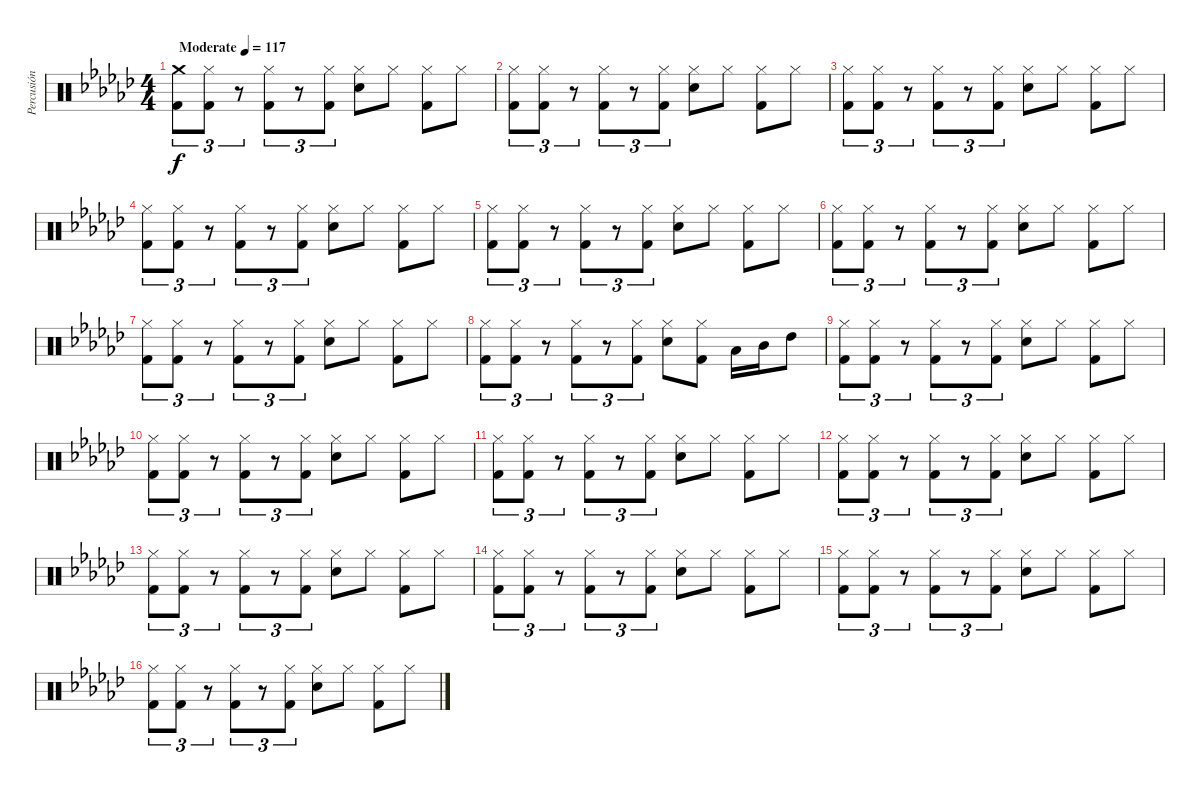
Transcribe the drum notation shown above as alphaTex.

\track ("Percusión" "Percusión") {instrument percussion}
\staff {score}
\articulation defaults
\ts (4 4)
\tempo (117 "Moderate")
\clef neutral
\ks ebminor
("Kick (hit) 2" "Crash medium (hit)").8{tu (3 2) dy f} ("Kick (hit) 2" "Hi-Hat (closed)").8{tu (3 2)} r.8{tu (3 2)} ("Kick (hit) 2" "Hi-Hat (closed)").8{tu (3 2)} r.8{tu (3 2)} ("Kick (hit) 2" "Hi-Hat (closed)").8{tu (3 2)} ("Electric Snare (hit)" "Hi-Hat (closed)").8 "Hi-Hat (closed)".8 ("Kick (hit) 2" "Hi-Hat (closed)").8 "Hi-Hat (closed)".8 |
("Kick (hit) 2" "Hi-Hat (closed)").8{tu (3 2)} ("Kick (hit) 2" "Hi-Hat (closed)").8{tu (3 2)} r.8{tu (3 2)} ("Kick (hit) 2" "Hi-Hat (closed)").8{tu (3 2)} r.8{tu (3 2)} ("Kick (hit) 2" "Hi-Hat (closed)").8{tu (3 2)} ("Electric Snare (hit)" "Hi-Hat (closed)").8 "Hi-Hat (closed)".8 ("Kick (hit) 2" "Hi-Hat (closed)").8 "Hi-Hat (closed)".8 |
("Kick (hit) 2" "Hi-Hat (closed)").8{tu (3 2)} ("Kick (hit) 2" "Hi-Hat (closed)").8{tu (3 2)} r.8{tu (3 2)} ("Kick (hit) 2" "Hi-Hat (closed)").8{tu (3 2)} r.8{tu (3 2)} ("Kick (hit) 2" "Hi-Hat (closed)").8{tu (3 2)} ("Electric Snare (hit)" "Hi-Hat (closed)").8 "Hi-Hat (closed)".8 ("Kick (hit) 2" "Hi-Hat (closed)").8 "Hi-Hat (closed)".8 |
("Kick (hit) 2" "Hi-Hat (closed)").8{tu (3 2)} ("Kick (hit) 2" "Hi-Hat (closed)").8{tu (3 2)} r.8{tu (3 2)} ("Kick (hit) 2" "Hi-Hat (closed)").8{tu (3 2)} r.8{tu (3 2)} ("Kick (hit) 2" "Hi-Hat (closed)").8{tu (3 2)} ("Electric Snare (hit)" "Hi-Hat (closed)").8 "Hi-Hat (closed)".8 ("Kick (hit) 2" "Hi-Hat (closed)").8 "Hi-Hat (closed)".8 |
("Kick (hit) 2" "Hi-Hat (closed)").8{tu (3 2)} ("Kick (hit) 2" "Hi-Hat (closed)").8{tu (3 2)} r.8{tu (3 2)} ("Kick (hit) 2" "Hi-Hat (closed)").8{tu (3 2)} r.8{tu (3 2)} ("Kick (hit) 2" "Hi-Hat (closed)").8{tu (3 2)} ("Electric Snare (hit)" "Hi-Hat (closed)").8 "Hi-Hat (closed)".8 ("Kick (hit) 2" "Hi-Hat (closed)").8 "Hi-Hat (closed)".8 |
("Kick (hit) 2" "Hi-Hat (closed)").8{tu (3 2)} ("Kick (hit) 2" "Hi-Hat (closed)").8{tu (3 2)} r.8{tu (3 2)} ("Kick (hit) 2" "Hi-Hat (closed)").8{tu (3 2)} r.8{tu (3 2)} ("Kick (hit) 2" "Hi-Hat (closed)").8{tu (3 2)} ("Electric Snare (hit)" "Hi-Hat (closed)").8 "Hi-Hat (closed)".8 ("Kick (hit) 2" "Hi-Hat (closed)").8 "Hi-Hat (closed)".8 |
("Kick (hit) 2" "Hi-Hat (closed)").8{tu (3 2)} ("Kick (hit) 2" "Hi-Hat (closed)").8{tu (3 2)} r.8{tu (3 2)} ("Kick (hit) 2" "Hi-Hat (closed)").8{tu (3 2)} r.8{tu (3 2)} ("Kick (hit) 2" "Hi-Hat (closed)").8{tu (3 2)} ("Electric Snare (hit)" "Hi-Hat (closed)").8 "Hi-Hat (closed)".8 ("Kick (hit) 2" "Hi-Hat (closed)").8 "Hi-Hat (closed)".8 |
("Kick (hit) 2" "Hi-Hat (closed)").8{tu (3 2)} ("Kick (hit) 2" "Hi-Hat (closed)").8{tu (3 2)} r.8{tu (3 2)} ("Kick (hit) 2" "Hi-Hat (closed)").8{tu (3 2)} r.8{tu (3 2)} ("Kick (hit) 2" "Hi-Hat (closed)").8{tu (3 2)} ("Electric Snare (hit)" "Hi-Hat (closed)").8 ("Kick (hit) 2" "Hi-Hat (closed)").8 "Low Tom (hit)".16 "Mid Tom (hit)".16 "High Tom (hit)".8 |
("Kick (hit) 2" "Hi-Hat (closed)").8{tu (3 2)} ("Kick (hit) 2" "Hi-Hat (closed)").8{tu (3 2)} r.8{tu (3 2)} ("Kick (hit) 2" "Hi-Hat (closed)").8{tu (3 2)} r.8{tu (3 2)} ("Kick (hit) 2" "Hi-Hat (closed)").8{tu (3 2)} ("Electric Snare (hit)" "Hi-Hat (closed)").8 "Hi-Hat (closed)".8 ("Kick (hit) 2" "Hi-Hat (closed)").8 "Hi-Hat (closed)".8 |
("Kick (hit) 2" "Hi-Hat (closed)").8{tu (3 2)} ("Kick (hit) 2" "Hi-Hat (closed)").8{tu (3 2)} r.8{tu (3 2)} ("Kick (hit) 2" "Hi-Hat (closed)").8{tu (3 2)} r.8{tu (3 2)} ("Kick (hit) 2" "Hi-Hat (closed)").8{tu (3 2)} ("Electric Snare (hit)" "Hi-Hat (closed)").8 "Hi-Hat (closed)".8 ("Kick (hit) 2" "Hi-Hat (closed)").8 "Hi-Hat (closed)".8 |
("Kick (hit) 2" "Hi-Hat (closed)").8{tu (3 2)} ("Kick (hit) 2" "Hi-Hat (closed)").8{tu (3 2)} r.8{tu (3 2)} ("Kick (hit) 2" "Hi-Hat (closed)").8{tu (3 2)} r.8{tu (3 2)} ("Kick (hit) 2" "Hi-Hat (closed)").8{tu (3 2)} ("Electric Snare (hit)" "Hi-Hat (closed)").8 "Hi-Hat (closed)".8 ("Kick (hit) 2" "Hi-Hat (closed)").8 "Hi-Hat (closed)".8 |
("Kick (hit) 2" "Hi-Hat (closed)").8{tu (3 2)} ("Kick (hit) 2" "Hi-Hat (closed)").8{tu (3 2)} r.8{tu (3 2)} ("Kick (hit) 2" "Hi-Hat (closed)").8{tu (3 2)} r.8{tu (3 2)} ("Kick (hit) 2" "Hi-Hat (closed)").8{tu (3 2)} ("Electric Snare (hit)" "Hi-Hat (closed)").8 "Hi-Hat (closed)".8 ("Kick (hit) 2" "Hi-Hat (closed)").8 "Hi-Hat (closed)".8 |
("Kick (hit) 2" "Hi-Hat (closed)").8{tu (3 2)} ("Kick (hit) 2" "Hi-Hat (closed)").8{tu (3 2)} r.8{tu (3 2)} ("Kick (hit) 2" "Hi-Hat (closed)").8{tu (3 2)} r.8{tu (3 2)} ("Kick (hit) 2" "Hi-Hat (closed)").8{tu (3 2)} ("Electric Snare (hit)" "Hi-Hat (closed)").8 "Hi-Hat (closed)".8 ("Kick (hit) 2" "Hi-Hat (closed)").8 "Hi-Hat (closed)".8 |
("Kick (hit) 2" "Hi-Hat (closed)").8{tu (3 2)} ("Kick (hit) 2" "Hi-Hat (closed)").8{tu (3 2)} r.8{tu (3 2)} ("Kick (hit) 2" "Hi-Hat (closed)").8{tu (3 2)} r.8{tu (3 2)} ("Kick (hit) 2" "Hi-Hat (closed)").8{tu (3 2)} ("Electric Snare (hit)" "Hi-Hat (closed)").8 "Hi-Hat (closed)".8 ("Kick (hit) 2" "Hi-Hat (closed)").8 "Hi-Hat (closed)".8 |
("Kick (hit) 2" "Hi-Hat (closed)").8{tu (3 2)} ("Kick (hit) 2" "Hi-Hat (closed)").8{tu (3 2)} r.8{tu (3 2)} ("Kick (hit) 2" "Hi-Hat (closed)").8{tu (3 2)} r.8{tu (3 2)} ("Kick (hit) 2" "Hi-Hat (closed)").8{tu (3 2)} ("Electric Snare (hit)" "Hi-Hat (closed)").8 "Hi-Hat (closed)".8 ("Kick (hit) 2" "Hi-Hat (closed)").8 "Hi-Hat (closed)".8 |
("Kick (hit) 2" "Hi-Hat (closed)").8{tu (3 2)} ("Kick (hit) 2" "Hi-Hat (closed)").8{tu (3 2)} r.8{tu (3 2)} ("Kick (hit) 2" "Hi-Hat (closed)").8{tu (3 2)} r.8{tu (3 2)} ("Kick (hit) 2" "Hi-Hat (closed)").8{tu (3 2)} ("Electric Snare (hit)" "Hi-Hat (closed)").8 "Hi-Hat (closed)".8 ("Kick (hit) 2" "Hi-Hat (closed)").8 "Hi-Hat (closed)".8
